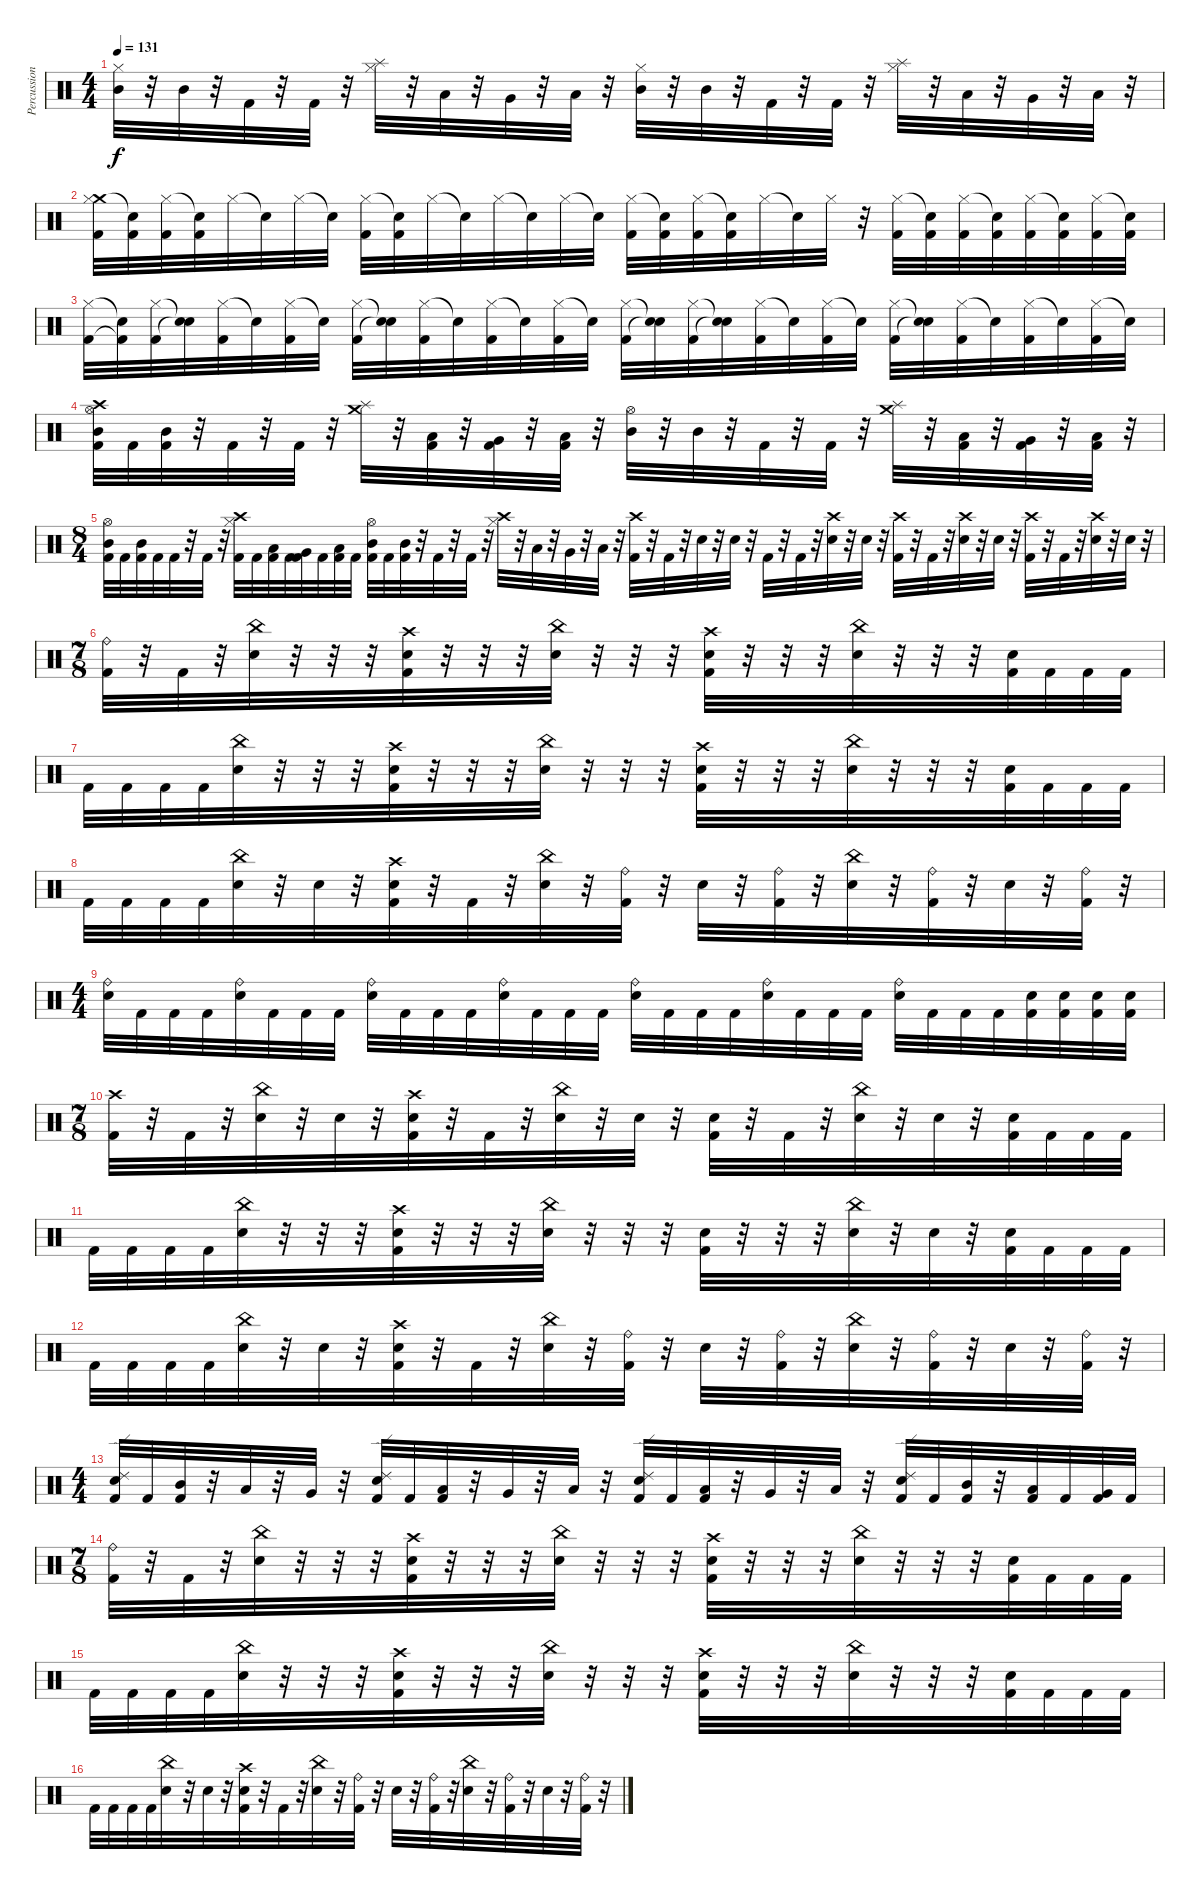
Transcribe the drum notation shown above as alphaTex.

\track ("Percussion" "Percussion") {instrument percussion}
\staff {score}
\articulation defaults
\ts (4 4)
\tempo 131
\clef neutral
\ks c
("Hi-Hat (closed)" "Mid Tom (hit)").32{dy f} r.32 "Mid Tom (hit)".32 r.32 "Kick (hit) 2".32 r.32 "Kick (hit) 2".32 r.32 ("Splash (hit)" "Hi-Hat (closed)").32 r.32 "Low Tom (hit)".32 r.32 "Very Low Tom (hit)".32 r.32 "Low Floor Tom (hit)".32 r.32 ("Hi-Hat (closed)" "Mid Tom (hit)").32 r.32 "Mid Tom (hit)".32 r.32 "Kick (hit) 2".32 r.32 "Kick (hit) 2".32 r.32 ("Splash (hit)" "Hi-Hat (closed)").32 r.32 "Low Tom (hit)".32 r.32 "Very Low Tom (hit)".32 r.32 "Low Floor Tom (hit)".32 r.32 |
("Crash medium (hit)" "Hi-Hat (closed)" "Kick (hit) 2").32 ("Snare (hit)"{t} "Kick (hit) 2").32 ("Hi-Hat (closed)" "Kick (hit) 2").32 ("Snare (hit)"{t} "Kick (hit) 2").32 "Hi-Hat (closed)".32 "Snare (hit)"{t}.32 "Hi-Hat (closed)".32 "Snare (hit)"{t}.32 ("Hi-Hat (closed)" "Kick (hit) 2").32 ("Snare (hit)"{t} "Kick (hit) 2").32 "Hi-Hat (closed)".32 "Snare (hit)"{t}.32 "Hi-Hat (closed)".32 "Snare (hit)"{t}.32 "Hi-Hat (closed)".32 "Snare (hit)"{t}.32 ("Hi-Hat (closed)" "Kick (hit) 2").32 ("Snare (hit)"{t} "Kick (hit) 2").32 ("Hi-Hat (closed)" "Kick (hit) 2").32 ("Snare (hit)"{t} "Kick (hit) 2").32 "Hi-Hat (closed)".32 "Snare (hit)"{t}.32 "Hi-Hat (closed)".32 r.32 ("Hi-Hat (closed)" "Kick (hit) 2").32 ("Snare (hit)"{t} "Kick (hit) 2").32 ("Hi-Hat (closed)" "Kick (hit) 2").32 ("Snare (hit)"{t} "Kick (hit) 2").32 ("Hi-Hat (closed)" "Kick (hit) 2").32 ("Snare (hit)"{t} "Kick (hit) 2").32 ("Hi-Hat (closed)" "Kick (hit) 2").32 ("Snare (hit)"{t} "Kick (hit) 2").32 |
("Hi-Hat (closed)" "Kick (hit) 2").32 ("Snare (hit)"{t} "Kick (hit) 2"{t}).32 ("Hi-Hat (closed)" "Kick (hit) 2").32 ("Snare (hit)"{t} "Snare (hit)"{t}).32 ("Hi-Hat (closed)" "Kick (hit) 2").32 "Snare (hit)"{t}.32 ("Hi-Hat (closed)" "Kick (hit) 2").32 "Snare (hit)"{t}.32 ("Hi-Hat (closed)" "Kick (hit) 2").32 ("Snare (hit)"{t} "Snare (hit)"{t}).32 ("Hi-Hat (closed)" "Kick (hit) 2").32 "Snare (hit)"{t}.32 ("Hi-Hat (closed)" "Kick (hit) 2").32 "Snare (hit)"{t}.32 ("Hi-Hat (closed)" "Kick (hit) 2").32 "Snare (hit)"{t}.32 ("Hi-Hat (closed)" "Kick (hit) 2").32 ("Snare (hit)"{t} "Snare (hit)"{t}).32 ("Hi-Hat (closed)" "Kick (hit) 2").32 ("Snare (hit)"{t} "Snare (hit)"{t}).32 ("Hi-Hat (closed)" "Kick (hit) 2").32 "Snare (hit)"{t}.32 ("Hi-Hat (closed)" "Kick (hit) 2").32 "Snare (hit)"{t}.32 ("Hi-Hat (closed)" "Kick (hit) 2").32 ("Snare (hit)"{t} "Snare (hit)"{t}).32 ("Hi-Hat (closed)" "Kick (hit) 2").32 "Snare (hit)"{t}.32 ("Hi-Hat (closed)" "Kick (hit) 2").32 "Snare (hit)"{t}.32 ("Hi-Hat (closed)" "Kick (hit) 2").32 "Snare (hit)"{t}.32 |
("Crash high (hit)" "Hi-Hat (open)" "Mid Tom (hit)" "Kick (hit) 2").32 "Kick (hit) 2".32 ("Mid Tom (hit)" "Kick (hit) 2").32 r.32 "Kick (hit) 2".32 r.32 "Kick (hit) 2".32 r.32 ("Splash (hit)" "Crash medium (hit)").32 r.32 ("Low Tom (hit)" "Kick (hit) 2").32 r.32 ("Very Low Tom (hit)" "Kick (hit) 2").32 r.32 ("Low Floor Tom (hit)" "Kick (hit) 2").32 r.32 ("Hi-Hat (open)" "Mid Tom (hit)").32 r.32 "Mid Tom (hit)".32 r.32 "Kick (hit) 2".32 r.32 "Kick (hit) 2".32 r.32 ("Splash (hit)" "Crash medium (hit)").32 r.32 ("Low Tom (hit)" "Kick (hit) 2").32 r.32 ("Very Low Tom (hit)" "Kick (hit) 2").32 r.32 ("Low Floor Tom (hit)" "Kick (hit) 2").32 r.32 |
\ts (8 4)
("Hi-Hat (open)" "Mid Tom (hit)" "Kick (hit) 2").32 "Kick (hit) 2".32 ("Mid Tom (hit)" "Kick (hit) 2").32 "Kick (hit) 2".32 "Kick (hit) 2".32 r.32 "Kick (hit) 2".32 r.32 ("Crash high (hit)" "Hi-Hat (closed)" "Kick (hit) 2").32 "Kick (hit) 2".32 ("Low Tom (hit)" "Kick (hit) 2").32 "Kick (hit) 2".32 ("Very Low Tom (hit)" "Kick (hit) 2").32 "Kick (hit) 2".32 ("Low Floor Tom (hit)" "Kick (hit) 2").32 "Kick (hit) 2".32 ("Hi-Hat (open)" "Mid Tom (hit)" "Kick (hit) 2").32 "Kick (hit) 2".32 ("Mid Tom (hit)" "Kick (hit) 2").32 r.32 "Kick (hit) 2".32 r.32 "Kick (hit) 2".32 r.32 ("Crash high (hit)" "Hi-Hat (closed)").32 r.32 "Low Tom (hit)".32 r.32 "Very Low Tom (hit)".32 r.32 "Low Floor Tom (hit)".32 r.32 ("Crash high (hit)" "Kick (hit) 2").32 r.32 "Kick (hit) 2".32 r.32 "Electric Snare (hit)".32 r.32 "Electric Snare (hit)".32 r.32 "Kick (hit) 2".32 r.32 "Kick (hit) 2".32 r.32 ("Crash high (hit)" "Electric Snare (hit)").32 r.32 "Electric Snare (hit)".32 r.32 ("Crash high (hit)" "Kick (hit) 2").32 r.32 "Kick (hit) 2".32 r.32 ("Crash high (hit)" "Electric Snare (hit)").32 r.32 "Electric Snare (hit)".32 r.32 ("Crash high (hit)" "Kick (hit) 2").32 r.32 "Kick (hit) 2".32 r.32 ("Crash high (hit)" "Electric Snare (hit)").32 r.32 "Electric Snare (hit)".32 r.32 |
\ts (7 8)
("Ride (bell)" "Kick (hit) 2").32 r.32 "Kick (hit) 2".32 r.32 ("China (hit)" "Electric Snare (hit)").32 r.32 r.32 r.32 ("Crash high (hit)" "Electric Snare (hit)" "Kick (hit) 2").32 r.32 r.32 r.32 ("China (hit)" "Electric Snare (hit)").32 r.32 r.32 r.32 ("Crash high (hit)" "Electric Snare (hit)" "Kick (hit) 2").32 r.32 r.32 r.32 ("China (hit)" "Electric Snare (hit)").32 r.32 r.32 r.32 ("Electric Snare (hit)" "Kick (hit) 2").32 "Kick (hit) 2".32 "Kick (hit) 2".32 "Kick (hit) 2".32 |
"Kick (hit) 2".32 "Kick (hit) 2".32 "Kick (hit) 2".32 "Kick (hit) 2".32 ("China (hit)" "Electric Snare (hit)").32 r.32 r.32 r.32 ("Crash high (hit)" "Electric Snare (hit)" "Kick (hit) 2").32 r.32 r.32 r.32 ("China (hit)" "Electric Snare (hit)").32 r.32 r.32 r.32 ("Crash high (hit)" "Electric Snare (hit)" "Kick (hit) 2").32 r.32 r.32 r.32 ("China (hit)" "Electric Snare (hit)").32 r.32 r.32 r.32 ("Electric Snare (hit)" "Kick (hit) 2").32 "Kick (hit) 2".32 "Kick (hit) 2".32 "Kick (hit) 2".32 |
"Kick (hit) 2".32 "Kick (hit) 2".32 "Kick (hit) 2".32 "Kick (hit) 2".32 ("China (hit)" "Electric Snare (hit)").32 r.32 "Electric Snare (hit)".32 r.32 ("Crash high (hit)" "Electric Snare (hit)" "Kick (hit) 2").32 r.32 "Kick (hit) 2".32 r.32 ("China (hit)" "Electric Snare (hit)").32 r.32 ("Ride (bell)" "Kick (hit) 2").32 r.32 "Electric Snare (hit)".32 r.32 ("Ride (bell)" "Kick (hit) 2").32 r.32 ("China (hit)" "Electric Snare (hit)").32 r.32 ("Ride (bell)" "Kick (hit) 2").32 r.32 "Electric Snare (hit)".32 r.32 ("Ride (bell)" "Kick (hit) 2").32 r.32 |
\ts (4 4)
("Ride (bell)" "Electric Snare (hit)").32 "Kick (hit) 2".32 "Kick (hit) 2".32 "Kick (hit) 2".32 ("Ride (bell)" "Electric Snare (hit)").32 "Kick (hit) 2".32 "Kick (hit) 2".32 "Kick (hit) 2".32 ("Ride (bell)" "Electric Snare (hit)").32 "Kick (hit) 2".32 "Kick (hit) 2".32 "Kick (hit) 2".32 ("Ride (bell)" "Electric Snare (hit)").32 "Kick (hit) 2".32 "Kick (hit) 2".32 "Kick (hit) 2".32 ("Ride (bell)" "Electric Snare (hit)").32 "Kick (hit) 2".32 "Kick (hit) 2".32 "Kick (hit) 2".32 ("Ride (bell)" "Electric Snare (hit)").32 "Kick (hit) 2".32 "Kick (hit) 2".32 "Kick (hit) 2".32 ("Ride (bell)" "Electric Snare (hit)").32 "Kick (hit) 2".32 "Kick (hit) 2".32 "Kick (hit) 2".32 ("Electric Snare (hit)" "Kick (hit) 2").32 ("Electric Snare (hit)" "Kick (hit) 2").32 ("Electric Snare (hit)" "Kick (hit) 2").32 ("Electric Snare (hit)" "Kick (hit) 2").32 |
\ts (7 8)
("Crash high (hit)" "Kick (hit) 2").32 r.32 "Kick (hit) 2".32 r.32 ("China (hit)" "Electric Snare (hit)").32 r.32 "Electric Snare (hit)".32 r.32 ("Crash high (hit)" "Electric Snare (hit)" "Kick (hit) 2").32 r.32 "Kick (hit) 2".32 r.32 ("China (hit)" "Electric Snare (hit)").32 r.32 "Electric Snare (hit)".32 r.32 ("Electric Snare (hit)" "Kick (hit) 2").32 r.32 "Kick (hit) 2".32 r.32 ("China (hit)" "Electric Snare (hit)").32 r.32 "Electric Snare (hit)".32 r.32 ("Electric Snare (hit)" "Kick (hit) 2").32 "Kick (hit) 2".32 "Kick (hit) 2".32 "Kick (hit) 2".32 |
"Kick (hit) 2".32 "Kick (hit) 2".32 "Kick (hit) 2".32 "Kick (hit) 2".32 ("China (hit)" "Electric Snare (hit)").32 r.32 r.32 r.32 ("Crash high (hit)" "Electric Snare (hit)" "Kick (hit) 2").32 r.32 r.32 r.32 ("China (hit)" "Electric Snare (hit)").32 r.32 r.32 r.32 ("Electric Snare (hit)" "Kick (hit) 2").32 r.32 r.32 r.32 ("China (hit)" "Electric Snare (hit)").32 r.32 "Electric Snare (hit)".32 r.32 ("Electric Snare (hit)" "Kick (hit) 2").32 "Kick (hit) 2".32 "Kick (hit) 2".32 "Kick (hit) 2".32 |
"Kick (hit) 2".32 "Kick (hit) 2".32 "Kick (hit) 2".32 "Kick (hit) 2".32 ("China (hit)" "Electric Snare (hit)").32 r.32 "Electric Snare (hit)".32 r.32 ("Crash high (hit)" "Electric Snare (hit)" "Kick (hit) 2").32 r.32 "Kick (hit) 2".32 r.32 ("China (hit)" "Electric Snare (hit)").32 r.32 ("Ride (bell)" "Kick (hit) 2").32 r.32 "Electric Snare (hit)".32 r.32 ("Ride (bell)" "Kick (hit) 2").32 r.32 ("China (hit)" "Electric Snare (hit)").32 r.32 ("Ride (bell)" "Kick (hit) 2").32 r.32 "Electric Snare (hit)".32 r.32 ("Ride (bell)" "Kick (hit) 2").32 r.32 |
\ts (4 4)
("Ride (edge) 2" "Electric Snare (hit)" "Kick (hit) 2").32 "Kick (hit) 2".32 ("Mid Tom (hit)" "Kick (hit) 2").32 r.32 "Low Tom (hit)".32 r.32 "Very Low Tom (hit)".32 r.32 ("Ride (edge) 2" "Electric Snare (hit)" "Kick (hit) 2").32 "Kick (hit) 2".32 ("Low Tom (hit)" "Kick (hit) 2").32 r.32 "Very Low Tom (hit)".32 r.32 "Low Floor Tom (hit)".32 r.32 ("Ride (edge) 2" "Electric Snare (hit)" "Kick (hit) 2").32 "Kick (hit) 2".32 ("Low Tom (hit)" "Kick (hit) 2").32 r.32 "Very Low Tom (hit)".32 r.32 "Low Floor Tom (hit)".32 r.32 ("Ride (edge) 2" "Electric Snare (hit)" "Kick (hit) 2").32 "Kick (hit) 2".32 ("Mid Tom (hit)" "Kick (hit) 2").32 r.32 ("Low Tom (hit)" "Kick (hit) 2").32 "Kick (hit) 2".32 ("Very Low Tom (hit)" "Kick (hit) 2").32 "Kick (hit) 2".32 |
\ts (7 8)
("Ride (bell)" "Kick (hit) 2").32 r.32 "Kick (hit) 2".32 r.32 ("China (hit)" "Electric Snare (hit)").32 r.32 r.32 r.32 ("Crash high (hit)" "Electric Snare (hit)" "Kick (hit) 2").32 r.32 r.32 r.32 ("China (hit)" "Electric Snare (hit)").32 r.32 r.32 r.32 ("Crash high (hit)" "Electric Snare (hit)" "Kick (hit) 2").32 r.32 r.32 r.32 ("China (hit)" "Electric Snare (hit)").32 r.32 r.32 r.32 ("Electric Snare (hit)" "Kick (hit) 2").32 "Kick (hit) 2".32 "Kick (hit) 2".32 "Kick (hit) 2".32 |
"Kick (hit) 2".32 "Kick (hit) 2".32 "Kick (hit) 2".32 "Kick (hit) 2".32 ("China (hit)" "Electric Snare (hit)").32 r.32 r.32 r.32 ("Crash high (hit)" "Electric Snare (hit)" "Kick (hit) 2").32 r.32 r.32 r.32 ("China (hit)" "Electric Snare (hit)").32 r.32 r.32 r.32 ("Crash high (hit)" "Electric Snare (hit)" "Kick (hit) 2").32 r.32 r.32 r.32 ("China (hit)" "Electric Snare (hit)").32 r.32 r.32 r.32 ("Electric Snare (hit)" "Kick (hit) 2").32 "Kick (hit) 2".32 "Kick (hit) 2".32 "Kick (hit) 2".32 |
"Kick (hit) 2".32 "Kick (hit) 2".32 "Kick (hit) 2".32 "Kick (hit) 2".32 ("China (hit)" "Electric Snare (hit)").32 r.32 "Electric Snare (hit)".32 r.32 ("Crash high (hit)" "Electric Snare (hit)" "Kick (hit) 2").32 r.32 "Kick (hit) 2".32 r.32 ("China (hit)" "Electric Snare (hit)").32 r.32 ("Ride (bell)" "Kick (hit) 2").32 r.32 "Electric Snare (hit)".32 r.32 ("Ride (bell)" "Kick (hit) 2").32 r.32 ("China (hit)" "Electric Snare (hit)").32 r.32 ("Ride (bell)" "Kick (hit) 2").32 r.32 "Electric Snare (hit)".32 r.32 ("Ride (bell)" "Kick (hit) 2").32 r.32
